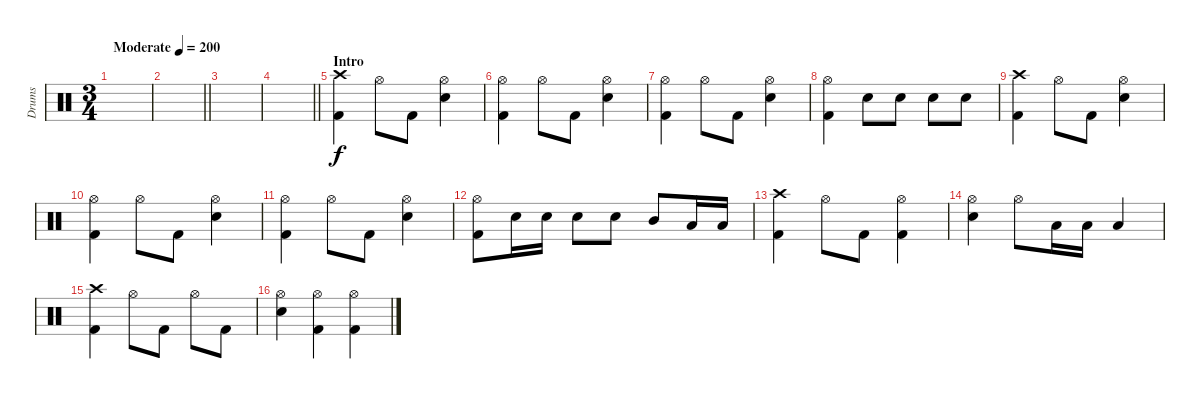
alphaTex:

\track ("Drums" "Drums") {instrument percussion}
\staff {score}
\articulation defaults
\ts (3 4)
\tempo (200 "Moderate")
\clef neutral
\ks c
|
\barLineRight lightlight
|
|
\barLineRight lightlight
|
\section ("" "Intro")
("Crash high (hit)" "Kick (hit) 2").4 "Hi-Hat (open)".8 "Kick (hit) 2".8 ("Hi-Hat (open)" "Electric Snare (hit)").4 |
("Hi-Hat (open)" "Kick (hit) 2").4 "Hi-Hat (open)".8 "Kick (hit) 2".8 ("Hi-Hat (open)" "Electric Snare (hit)").4 |
("Hi-Hat (open)" "Kick (hit) 2").4 "Hi-Hat (open)".8 "Kick (hit) 2".8 ("Hi-Hat (open)" "Electric Snare (hit)").4 |
("Hi-Hat (open)" "Kick (hit) 2").4 "Electric Snare (hit)".8 "Electric Snare (hit)".8 "Snare (hit) 2".8 "Snare (hit) 2".8 |
("Crash high (hit)" "Kick (hit) 2").4 "Hi-Hat (open)".8 "Kick (hit) 2".8 ("Hi-Hat (open)" "Electric Snare (hit)").4 |
("Hi-Hat (open)" "Kick (hit) 2").4 "Hi-Hat (open)".8 "Kick (hit) 2".8 ("Hi-Hat (open)" "Electric Snare (hit)").4 |
("Hi-Hat (open)" "Kick (hit) 2").4 "Hi-Hat (open)".8 "Kick (hit) 2".8 ("Hi-Hat (open)" "Electric Snare (hit)").4 |
("Hi-Hat (open)" "Kick (hit) 2").8 "Electric Snare (hit)".16 "Electric Snare (hit)".16 "Snare (hit) 2".8 "Snare (hit) 2".8 "Mid Tom (hit)".8 "Low Tom (hit)".16 "Low Tom (hit)".16 |
("Crash high (hit)" "Kick (hit) 2").4 "Hi-Hat (open)".8 "Kick (hit) 2".8 ("Hi-Hat (open)" "Kick (hit) 2").4 |
("Hi-Hat (open)" "Electric Snare (hit)").4 "Hi-Hat (open)".8 "Low Floor Tom (hit)".16 "Low Floor Tom (hit)".16 "Low Floor Tom (hit)".4 |
("Crash high (hit)" "Kick (hit) 2").4 "Hi-Hat (open)".8 "Kick (hit) 2".8 "Hi-Hat (open)".8 "Kick (hit) 2".8 |
("Hi-Hat (open)" "Electric Snare (hit)").4 ("Hi-Hat (open)" "Kick (hit) 2").4 ("Hi-Hat (open)" "Kick (hit) 2").4
